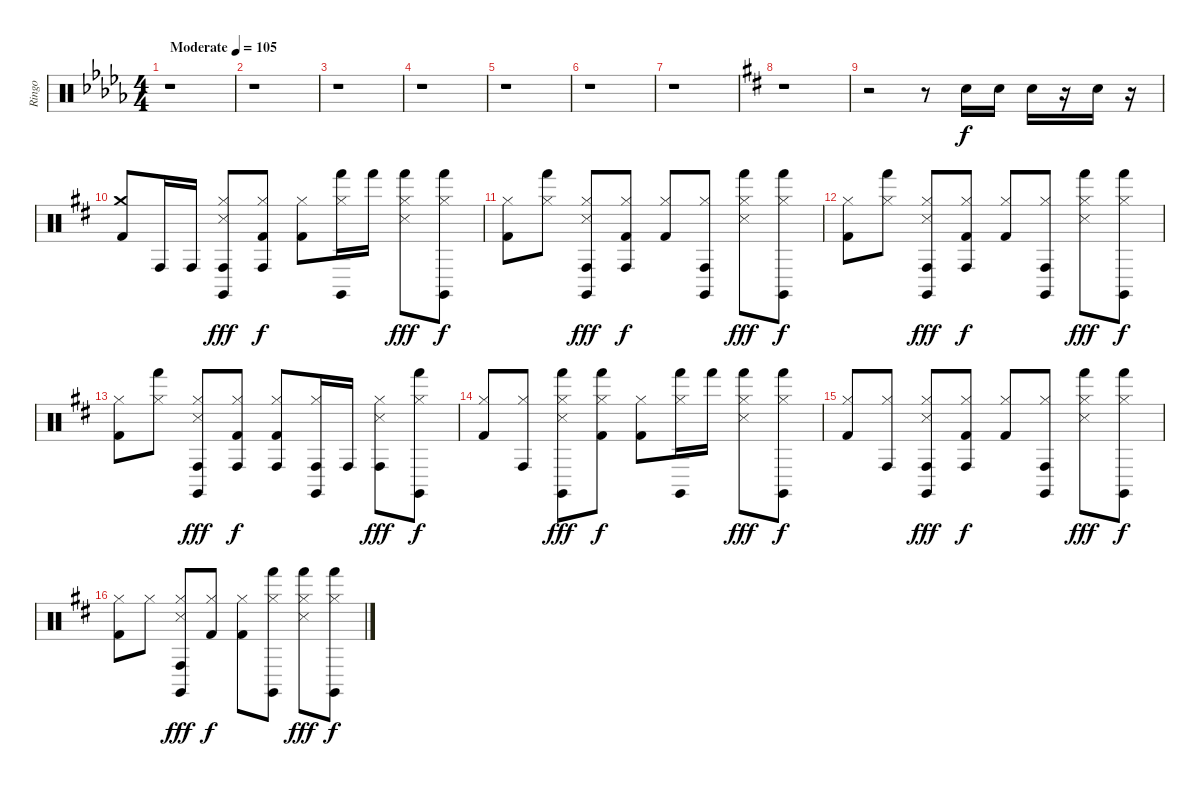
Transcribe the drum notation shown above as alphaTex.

\track ("Ringo" "Ringo") {solo instrument percussion}
\staff {score}
\articulation defaults
\ts (4 4)
\tempo (105 "Moderate")
\clef neutral
\ks db
r.1{dy f} |
r.1 |
r.1 |
r.1 |
r.1 |
r.1 |
r.1 |
\ks d
r.1 |
r.2 r.8 "Snare (hit) 2".16 "Snare (hit) 2".16 "Snare (hit) 2".16 r.16 "Snare (hit) 2".16 r.16 |
("Crash medium (hit)" "Kick (hit) 2").8 "Conga high (hit)".16 "Conga high (hit)".16 ("Hi-Hat (closed)" "Snare (side stick) 3" "Claves (hit)" "Conga high (hit)").8{dy fff} ("Hi-Hat (closed)" "Conga high (hit)" "Kick (hit) 2").8{dy f} ("Kick (hit) 2" "Hi-Hat (closed)").8 ("Hi-Hat (closed)" "Claves (hit)" "Hand (hit)").16 "Hand (hit)".16 ("Hand (hit)" "Hi-Hat (closed)" "Snare (side stick) 3").8{dy fff} ("Hand (hit)" "Hi-Hat (closed)" "Claves (hit)").8{dy f} |
("Hi-Hat (closed)" "Kick (hit) 2").8 ("Hi-Hat (closed)" "Hand (hit)").8 ("Claves (hit)" "Snare (side stick) 3" "Hi-Hat (closed)" "Conga high (hit)").8{dy fff} ("Conga high (hit)" "Hi-Hat (closed)" "Kick (hit) 2").8{dy f} ("Hi-Hat (closed)" "Kick (hit) 2").8 ("Hi-Hat (closed)" "Claves (hit)" "Conga high (hit)").8 ("Snare (side stick) 3" "Hi-Hat (closed)" "Hand (hit)").8{dy fff} ("Claves (hit)" "Hi-Hat (closed)" "Hand (hit)").8{dy f} |
("Hi-Hat (closed)" "Kick (hit) 2").8 ("Hand (hit)" "Hi-Hat (closed)").8 ("Hi-Hat (closed)" "Snare (side stick) 3" "Claves (hit)" "Conga high (hit)").8{dy fff} ("Kick (hit) 2" "Conga high (hit)" "Hi-Hat (closed)").8{dy f} ("Kick (hit) 2" "Hi-Hat (closed)").8 ("Hi-Hat (closed)" "Conga high (hit)" "Claves (hit)").8 ("Hand (hit)" "Snare (side stick) 3" "Hi-Hat (closed)").8{dy fff} ("Claves (hit)" "Hand (hit)" "Hi-Hat (closed)").8{dy f} |
("Kick (hit) 2" "Hi-Hat (closed)").8 ("Hand (hit)" "Hi-Hat (closed)").8 ("Hi-Hat (closed)" "Claves (hit)" "Snare (side stick) 3" "Conga high (hit)").8{dy fff} ("Kick (hit) 2" "Conga high (hit)" "Hi-Hat (closed)").8{dy f} ("Kick (hit) 2" "Hi-Hat (closed)" "Conga high (hit)").8 ("Claves (hit)" "Conga high (hit)" "Hi-Hat (closed)").16 "Conga high (hit)".16 ("Hi-Hat (closed)" "Snare (side stick) 3" "Conga high (hit)").8{dy fff} ("Hi-Hat (closed)" "Claves (hit)" "Hand (hit)").8{dy f} |
("Hi-Hat (closed)" "Kick (hit) 2").8 ("Hi-Hat (closed)" "Conga high (hit)").8 ("Snare (side stick) 3" "Claves (hit)" "Hand (hit)" "Hi-Hat (closed)").8{dy fff} ("Kick (hit) 2" "Hand (hit)" "Hi-Hat (closed)").8{dy f} ("Kick (hit) 2" "Hi-Hat (closed)").8 ("Hand (hit)" "Hi-Hat (closed)" "Claves (hit)").16 "Hand (hit)".16 ("Snare (side stick) 3" "Hand (hit)" "Hi-Hat (closed)").8{dy fff} ("Claves (hit)" "Hi-Hat (closed)" "Hand (hit)").8{dy f} |
("Hi-Hat (closed)" "Kick (hit) 2").8 ("Conga high (hit)" "Hi-Hat (closed)").8 ("Claves (hit)" "Snare (side stick) 3" "Conga high (hit)" "Hi-Hat (closed)").8{dy fff} ("Hi-Hat (closed)" "Kick (hit) 2" "Conga high (hit)").8{dy f} ("Kick (hit) 2" "Hi-Hat (closed)").8 ("Conga high (hit)" "Hi-Hat (closed)" "Claves (hit)").8 ("Hand (hit)" "Snare (side stick) 3" "Hi-Hat (closed)").8{dy fff} ("Claves (hit)" "Hand (hit)" "Hi-Hat (closed)").8{dy f} |
("Hi-Hat (closed)" "Kick (hit) 2").8 "Hi-Hat (closed)".8 ("Conga high (hit)" "Hi-Hat (closed)" "Snare (side stick) 3" "Claves (hit)").8{dy fff} ("Hi-Hat (closed)" "Kick (hit) 2").8{dy f} ("Hi-Hat (closed)" "Kick (hit) 2").8 ("Claves (hit)" "Hi-Hat (closed)" "Hand (hit)").8 ("Snare (side stick) 3" "Hi-Hat (closed)" "Hand (hit)").8{dy fff} ("Claves (hit)" "Hi-Hat (closed)" "Hand (hit)").8{dy f}
